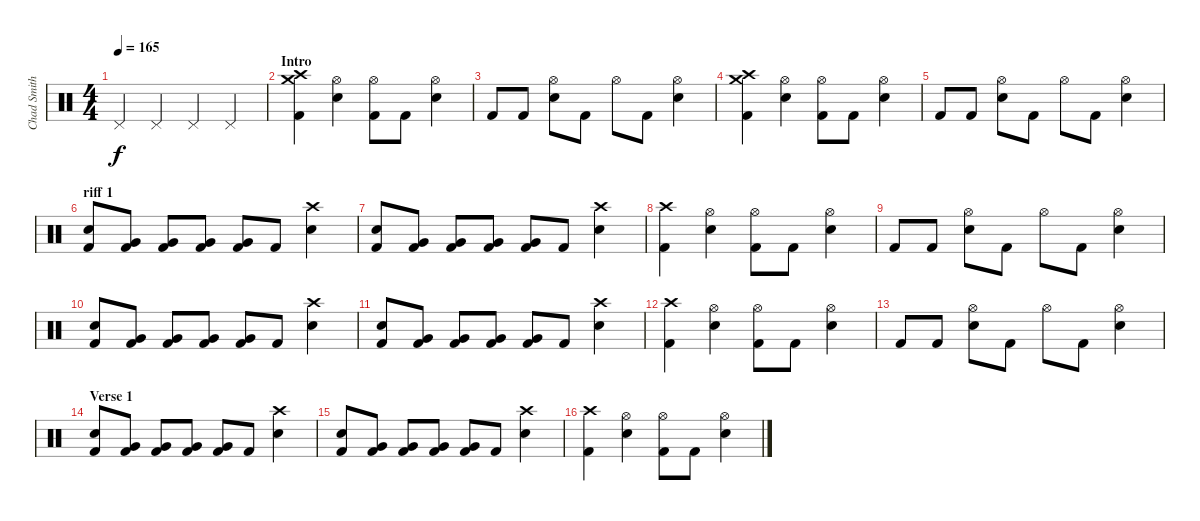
\track ("Chad Smith - Drums" "Chad Smith") {instrument percussion}
\staff {score}
\articulation defaults
\ts (4 4)
\tempo 165
\clef neutral
\ks c "Pedal Hi-Hat (hit)".4{dy f} "Pedal Hi-Hat (hit)".4 "Pedal Hi-Hat (hit)".4 "Pedal Hi-Hat (hit)".4
|
\section ("" "Intro")
("Crash medium (hit)" "Crash high (hit)" "Kick (hit) 2").4 ("Hi-Hat (open)" "Snare (hit) 2").4 ("Hi-Hat (open)" "Kick (hit) 2").8 "Kick (hit) 2".8 ("Hi-Hat (open)" "Snare (hit) 2").4 |
"Kick (hit) 2".8 "Kick (hit) 2".8 ("Hi-Hat (open)" "Snare (hit) 2").8 "Kick (hit) 2".8 "Hi-Hat (open)".8 "Kick (hit) 2".8 ("Snare (hit) 2" "Hi-Hat (open)").4 |
("Crash medium (hit)" "Crash high (hit)" "Kick (hit) 2").4 ("Hi-Hat (open)" "Snare (hit) 2").4 ("Hi-Hat (open)" "Kick (hit) 2").8 "Kick (hit) 2".8 ("Hi-Hat (open)" "Snare (hit) 2").4 |
"Kick (hit) 2".8 "Kick (hit) 2".8 ("Hi-Hat (open)" "Snare (hit) 2").8 "Kick (hit) 2".8 "Hi-Hat (open)".8 "Kick (hit) 2".8 ("Snare (hit) 2" "Hi-Hat (open)").4 |
\section ("" "riff 1")
("Kick (hit) 2" "Snare (hit) 2").8 ("Very Low Tom (hit)" "Kick (hit) 2").8 ("Very Low Tom (hit)" "Kick (hit) 2").8 ("Very Low Tom (hit)" "Kick (hit) 2").8 ("Very Low Tom (hit)" "Kick (hit) 2").8 "Kick (hit) 2".8 ("Crash high (hit)" "Snare (hit) 2").4 |
("Kick (hit) 2" "Snare (hit) 2").8 ("Very Low Tom (hit)" "Kick (hit) 2").8 ("Kick (hit) 2" "Very Low Tom (hit)").8 ("Very Low Tom (hit)" "Kick (hit) 2").8 ("Very Low Tom (hit)" "Kick (hit) 2").8 "Kick (hit) 2".8 ("Crash high (hit)" "Snare (hit) 2").4 |
("Crash high (hit)" "Kick (hit) 2").4 ("Hi-Hat (open)" "Snare (hit) 2").4 ("Hi-Hat (open)" "Kick (hit) 2").8 "Kick (hit) 2".8 ("Hi-Hat (open)" "Snare (hit) 2").4 |
"Kick (hit) 2".8 "Kick (hit) 2".8 ("Hi-Hat (open)" "Snare (hit) 2").8 "Kick (hit) 2".8 "Hi-Hat (open)".8 "Kick (hit) 2".8 ("Snare (hit) 2" "Hi-Hat (open)").4 |
("Kick (hit) 2" "Snare (hit) 2").8 ("Very Low Tom (hit)" "Kick (hit) 2").8 ("Kick (hit) 2" "Very Low Tom (hit)").8 ("Very Low Tom (hit)" "Kick (hit) 2").8 ("Very Low Tom (hit)" "Kick (hit) 2").8 "Kick (hit) 2".8 ("Crash high (hit)" "Snare (hit) 2").4 |
("Snare (hit) 2" "Kick (hit) 2").8 ("Very Low Tom (hit)" "Kick (hit) 2").8 ("Very Low Tom (hit)" "Kick (hit) 2").8 ("Very Low Tom (hit)" "Kick (hit) 2").8 ("Very Low Tom (hit)" "Kick (hit) 2").8 "Kick (hit) 2".8 ("Crash high (hit)" "Snare (hit) 2").4 |
("Crash high (hit)" "Kick (hit) 2").4 ("Hi-Hat (open)" "Snare (hit) 2").4 ("Hi-Hat (open)" "Kick (hit) 2").8 "Kick (hit) 2".8 ("Hi-Hat (open)" "Snare (hit) 2").4 |
"Kick (hit) 2".8 "Kick (hit) 2".8 ("Hi-Hat (open)" "Snare (hit) 2").8 "Kick (hit) 2".8 "Hi-Hat (open)".8 "Kick (hit) 2".8 ("Snare (hit) 2" "Hi-Hat (open)").4 |
\section ("" "Verse 1")
("Kick (hit) 2" "Snare (hit) 2").8 ("Very Low Tom (hit)" "Kick (hit) 2").8 ("Kick (hit) 2" "Very Low Tom (hit)").8 ("Very Low Tom (hit)" "Kick (hit) 2").8 ("Very Low Tom (hit)" "Kick (hit) 2").8 "Kick (hit) 2".8 ("Crash high (hit)" "Snare (hit) 2").4 |
("Snare (hit) 2" "Kick (hit) 2").8 ("Very Low Tom (hit)" "Kick (hit) 2").8 ("Very Low Tom (hit)" "Kick (hit) 2").8 ("Very Low Tom (hit)" "Kick (hit) 2").8 ("Very Low Tom (hit)" "Kick (hit) 2").8 "Kick (hit) 2".8 ("Crash high (hit)" "Snare (hit) 2").4 |
("Crash high (hit)" "Kick (hit) 2").4 ("Hi-Hat (open)" "Snare (hit) 2").4 ("Hi-Hat (open)" "Kick (hit) 2").8 "Kick (hit) 2".8 ("Hi-Hat (open)" "Snare (hit) 2").4
